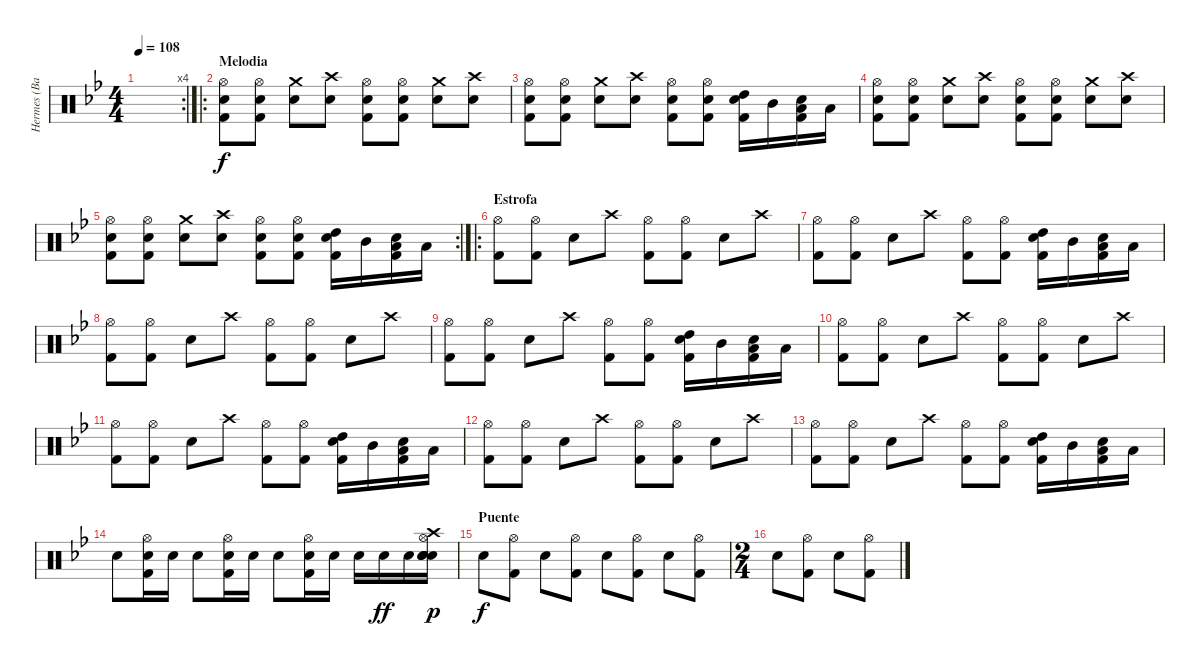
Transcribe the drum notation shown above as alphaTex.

\track ("Hermes (Bateria)" "Hermes (Ba") {instrument percussion}
\staff {score}
\articulation defaults
\rc 4
\ts (4 4)
\tempo 108
\clef neutral
\ks bb
|
\ro
\section ("" "Melodia")
("Hi-Hat (open)" "Electric Snare (hit)" "Kick (hit) 2").8 ("Hi-Hat (open)" "Electric Snare (hit)" "Kick (hit) 2").8 ("Crash medium (hit)" "Electric Snare (hit)").8 ("Crash high (hit)" "Electric Snare (hit)").8 ("Hi-Hat (open)" "Electric Snare (hit)" "Kick (hit) 2").8 ("Hi-Hat (open)" "Electric Snare (hit)" "Kick (hit) 2").8 ("Crash medium (hit)" "Electric Snare (hit)").8 ("Crash high (hit)" "Electric Snare (hit)").8 |
("Hi-Hat (open)" "Electric Snare (hit)" "Kick (hit) 2").8 ("Hi-Hat (open)" "Electric Snare (hit)" "Kick (hit) 2").8 ("Crash medium (hit)" "Electric Snare (hit)").8 ("Crash high (hit)" "Electric Snare (hit)").8 ("Hi-Hat (open)" "Electric Snare (hit)" "Kick (hit) 2").8 ("Hi-Hat (open)" "Electric Snare (hit)" "Kick (hit) 2").8 ("High Tom (hit)" "Electric Snare (hit)" "Kick (hit) 2").16 "Mid Tom (hit)".16 ("Low Tom (hit)" "Electric Snare (hit)" "Kick (hit) 2").16 "Low Tom (hit)".16 |
("Hi-Hat (open)" "Electric Snare (hit)" "Kick (hit) 2").8 ("Hi-Hat (open)" "Electric Snare (hit)" "Kick (hit) 2").8 ("Crash medium (hit)" "Electric Snare (hit)").8 ("Crash high (hit)" "Electric Snare (hit)").8 ("Hi-Hat (open)" "Electric Snare (hit)" "Kick (hit) 2").8 ("Hi-Hat (open)" "Electric Snare (hit)" "Kick (hit) 2").8 ("Crash medium (hit)" "Electric Snare (hit)").8 ("Crash high (hit)" "Electric Snare (hit)").8 |
\rc 2
("Hi-Hat (open)" "Electric Snare (hit)" "Kick (hit) 2").8 ("Hi-Hat (open)" "Electric Snare (hit)" "Kick (hit) 2").8 ("Crash medium (hit)" "Electric Snare (hit)").8 ("Crash high (hit)" "Electric Snare (hit)").8 ("Hi-Hat (open)" "Electric Snare (hit)" "Kick (hit) 2").8 ("Hi-Hat (open)" "Electric Snare (hit)" "Kick (hit) 2").8 ("High Tom (hit)" "Electric Snare (hit)" "Kick (hit) 2").16 "Mid Tom (hit)".16 ("Low Tom (hit)" "Electric Snare (hit)" "Kick (hit) 2").16 "Low Tom (hit)".16 |
\ro
\section ("" "Estrofa")
("Hi-Hat (open)" "Kick (hit) 2").8 ("Hi-Hat (open)" "Kick (hit) 2").8 "Electric Snare (hit)".8 "Crash high (hit)".8 ("Hi-Hat (open)" "Kick (hit) 2").8 ("Hi-Hat (open)" "Kick (hit) 2").8 "Electric Snare (hit)".8 "Crash high (hit)".8 |
("Hi-Hat (open)" "Kick (hit) 2").8 ("Hi-Hat (open)" "Kick (hit) 2").8 "Electric Snare (hit)".8 "Crash high (hit)".8 ("Hi-Hat (open)" "Kick (hit) 2").8 ("Hi-Hat (open)" "Kick (hit) 2").8 ("Electric Snare (hit)" "High Tom (hit)" "Kick (hit) 2").16 "Mid Tom (hit)".16 ("Electric Snare (hit)" "Low Tom (hit)" "Kick (hit) 2").16 "Low Tom (hit)".16 |
("Hi-Hat (open)" "Kick (hit) 2").8 ("Hi-Hat (open)" "Kick (hit) 2").8 "Electric Snare (hit)".8 "Crash high (hit)".8 ("Hi-Hat (open)" "Kick (hit) 2").8 ("Hi-Hat (open)" "Kick (hit) 2").8 "Electric Snare (hit)".8 "Crash high (hit)".8 |
("Hi-Hat (open)" "Kick (hit) 2").8 ("Hi-Hat (open)" "Kick (hit) 2").8 "Electric Snare (hit)".8 "Crash high (hit)".8 ("Hi-Hat (open)" "Kick (hit) 2").8 ("Hi-Hat (open)" "Kick (hit) 2").8 ("Electric Snare (hit)" "High Tom (hit)" "Kick (hit) 2").16 "Mid Tom (hit)".16 ("Electric Snare (hit)" "Low Tom (hit)" "Kick (hit) 2").16 "Low Tom (hit)".16 |
("Hi-Hat (open)" "Kick (hit) 2").8 ("Hi-Hat (open)" "Kick (hit) 2").8 "Electric Snare (hit)".8 "Crash high (hit)".8 ("Hi-Hat (open)" "Kick (hit) 2").8 ("Hi-Hat (open)" "Kick (hit) 2").8 "Electric Snare (hit)".8 "Crash high (hit)".8 |
("Hi-Hat (open)" "Kick (hit) 2").8 ("Hi-Hat (open)" "Kick (hit) 2").8 "Electric Snare (hit)".8 "Crash high (hit)".8 ("Hi-Hat (open)" "Kick (hit) 2").8 ("Hi-Hat (open)" "Kick (hit) 2").8 ("Electric Snare (hit)" "High Tom (hit)" "Kick (hit) 2").16 "Mid Tom (hit)".16 ("Electric Snare (hit)" "Low Tom (hit)" "Kick (hit) 2").16 "Low Tom (hit)".16 |
("Hi-Hat (open)" "Kick (hit) 2").8 ("Hi-Hat (open)" "Kick (hit) 2").8 "Electric Snare (hit)".8 "Crash high (hit)".8 ("Hi-Hat (open)" "Kick (hit) 2").8 ("Hi-Hat (open)" "Kick (hit) 2").8 "Electric Snare (hit)".8 "Crash high (hit)".8 |
("Hi-Hat (open)" "Kick (hit) 2").8 ("Hi-Hat (open)" "Kick (hit) 2").8 "Electric Snare (hit)".8 "Crash high (hit)".8 ("Hi-Hat (open)" "Kick (hit) 2").8 ("Hi-Hat (open)" "Kick (hit) 2").8 ("Electric Snare (hit)" "High Tom (hit)" "Kick (hit) 2").16 "Mid Tom (hit)".16 ("Electric Snare (hit)" "Low Tom (hit)" "Kick (hit) 2").16 "Low Tom (hit)".16 |
"Electric Snare (hit)".8 ("Hi-Hat (open)" "Electric Snare (hit)" "Kick (hit) 2").16 "Electric Snare (hit)".16 "Electric Snare (hit)".8 ("Hi-Hat (open)" "Electric Snare (hit)" "Kick (hit) 2").16 "Electric Snare (hit)".16 "Electric Snare (hit)".8 ("Hi-Hat (open)" "Electric Snare (hit)" "Kick (hit) 2").16 "Electric Snare (hit)".16 "Electric Snare (hit)".16 "Electric Snare (hit)".16{dy ff} "Electric Snare (hit)".16 ("Hi-Hat (open)" "Electric Snare (hit)" "Electric Snare (hit)" "Electric Snare (hit)" "Snare (hit) 2" "Crash high (hit)").16{dy p} |
\section ("" "Puente")
"Electric Snare (hit)".8{dy f} ("Hi-Hat (open)" "Kick (hit) 2").8 "Electric Snare (hit)".8 ("Hi-Hat (open)" "Kick (hit) 2").8 "Electric Snare (hit)".8 ("Hi-Hat (open)" "Kick (hit) 2").8 "Electric Snare (hit)".8 ("Hi-Hat (open)" "Kick (hit) 2").8 |
\ts (2 4)
"Electric Snare (hit)".8 ("Hi-Hat (open)" "Kick (hit) 2").8 "Electric Snare (hit)".8 ("Hi-Hat (open)" "Kick (hit) 2").8
